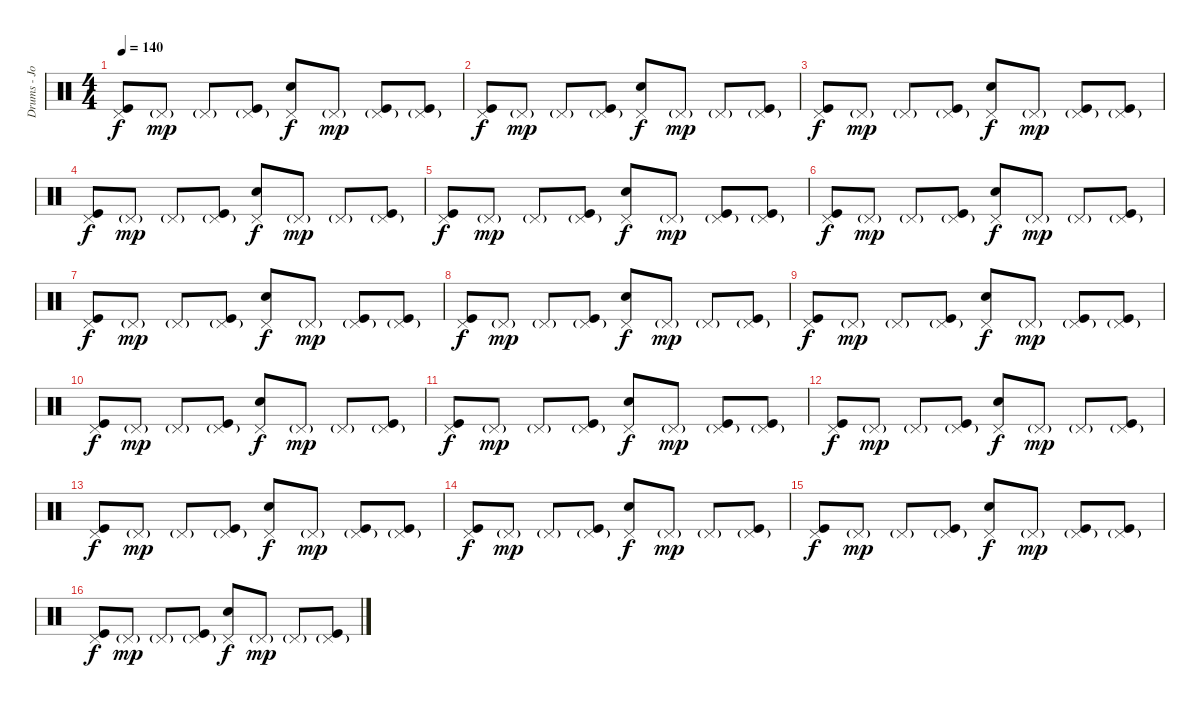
\track ("Drums - Josh Klinghoffer" "Drums - Jo") {instrument percussion}
\staff {score}
\articulation defaults
\ts (4 4)
\tempo 140
\clef neutral
\ks c
("Pedal Hi-Hat (hit)" "Kick (hit)").8{dy f} "Pedal Hi-Hat (hit)"{g}.8{dy mp} "Pedal Hi-Hat (hit)"{g}.8 ("Pedal Hi-Hat (hit)"{g} "Kick (hit)").8 ("Pedal Hi-Hat (hit)" "Electric Snare (hit)").8{dy f} "Pedal Hi-Hat (hit)"{g}.8{dy mp} ("Pedal Hi-Hat (hit)"{g} "Kick (hit)").8 ("Pedal Hi-Hat (hit)"{g} "Kick (hit)").8 |
("Pedal Hi-Hat (hit)" "Kick (hit)").8{dy f} "Pedal Hi-Hat (hit)"{g}.8{dy mp} "Pedal Hi-Hat (hit)"{g}.8 ("Pedal Hi-Hat (hit)"{g} "Kick (hit)").8 ("Pedal Hi-Hat (hit)" "Electric Snare (hit)").8{dy f} "Pedal Hi-Hat (hit)"{g}.8{dy mp} "Pedal Hi-Hat (hit)"{g}.8 ("Pedal Hi-Hat (hit)"{g} "Kick (hit)").8 |
("Pedal Hi-Hat (hit)" "Kick (hit)").8{dy f} "Pedal Hi-Hat (hit)"{g}.8{dy mp} "Pedal Hi-Hat (hit)"{g}.8 ("Pedal Hi-Hat (hit)"{g} "Kick (hit)").8 ("Pedal Hi-Hat (hit)" "Electric Snare (hit)").8{dy f} "Pedal Hi-Hat (hit)"{g}.8{dy mp} ("Pedal Hi-Hat (hit)"{g} "Kick (hit)").8 ("Pedal Hi-Hat (hit)"{g} "Kick (hit)").8 |
("Pedal Hi-Hat (hit)" "Kick (hit)").8{dy f} "Pedal Hi-Hat (hit)"{g}.8{dy mp} "Pedal Hi-Hat (hit)"{g}.8 ("Pedal Hi-Hat (hit)"{g} "Kick (hit)").8 ("Pedal Hi-Hat (hit)" "Electric Snare (hit)").8{dy f} "Pedal Hi-Hat (hit)"{g}.8{dy mp} "Pedal Hi-Hat (hit)"{g}.8 ("Pedal Hi-Hat (hit)"{g} "Kick (hit)").8 |
("Pedal Hi-Hat (hit)" "Kick (hit)").8{dy f} "Pedal Hi-Hat (hit)"{g}.8{dy mp} "Pedal Hi-Hat (hit)"{g}.8 ("Pedal Hi-Hat (hit)"{g} "Kick (hit)").8 ("Pedal Hi-Hat (hit)" "Electric Snare (hit)").8{dy f} "Pedal Hi-Hat (hit)"{g}.8{dy mp} ("Pedal Hi-Hat (hit)"{g} "Kick (hit)").8 ("Pedal Hi-Hat (hit)"{g} "Kick (hit)").8 |
("Pedal Hi-Hat (hit)" "Kick (hit)").8{dy f} "Pedal Hi-Hat (hit)"{g}.8{dy mp} "Pedal Hi-Hat (hit)"{g}.8 ("Pedal Hi-Hat (hit)"{g} "Kick (hit)").8 ("Pedal Hi-Hat (hit)" "Electric Snare (hit)").8{dy f} "Pedal Hi-Hat (hit)"{g}.8{dy mp} "Pedal Hi-Hat (hit)"{g}.8 ("Pedal Hi-Hat (hit)"{g} "Kick (hit)").8 |
("Pedal Hi-Hat (hit)" "Kick (hit)").8{dy f} "Pedal Hi-Hat (hit)"{g}.8{dy mp} "Pedal Hi-Hat (hit)"{g}.8 ("Pedal Hi-Hat (hit)"{g} "Kick (hit)").8 ("Pedal Hi-Hat (hit)" "Electric Snare (hit)").8{dy f} "Pedal Hi-Hat (hit)"{g}.8{dy mp} ("Pedal Hi-Hat (hit)"{g} "Kick (hit)").8 ("Pedal Hi-Hat (hit)"{g} "Kick (hit)").8 |
("Pedal Hi-Hat (hit)" "Kick (hit)").8{dy f} "Pedal Hi-Hat (hit)"{g}.8{dy mp} "Pedal Hi-Hat (hit)"{g}.8 ("Pedal Hi-Hat (hit)"{g} "Kick (hit)").8 ("Pedal Hi-Hat (hit)" "Electric Snare (hit)").8{dy f} "Pedal Hi-Hat (hit)"{g}.8{dy mp} "Pedal Hi-Hat (hit)"{g}.8 ("Pedal Hi-Hat (hit)"{g} "Kick (hit)").8 |
("Pedal Hi-Hat (hit)" "Kick (hit)").8{dy f} "Pedal Hi-Hat (hit)"{g}.8{dy mp} "Pedal Hi-Hat (hit)"{g}.8 ("Pedal Hi-Hat (hit)"{g} "Kick (hit)").8 ("Pedal Hi-Hat (hit)" "Electric Snare (hit)").8{dy f} "Pedal Hi-Hat (hit)"{g}.8{dy mp} ("Pedal Hi-Hat (hit)"{g} "Kick (hit)").8 ("Pedal Hi-Hat (hit)"{g} "Kick (hit)").8 |
("Pedal Hi-Hat (hit)" "Kick (hit)").8{dy f} "Pedal Hi-Hat (hit)"{g}.8{dy mp} "Pedal Hi-Hat (hit)"{g}.8 ("Pedal Hi-Hat (hit)"{g} "Kick (hit)").8 ("Pedal Hi-Hat (hit)" "Electric Snare (hit)").8{dy f} "Pedal Hi-Hat (hit)"{g}.8{dy mp} "Pedal Hi-Hat (hit)"{g}.8 ("Pedal Hi-Hat (hit)"{g} "Kick (hit)").8 |
("Pedal Hi-Hat (hit)" "Kick (hit)").8{dy f} "Pedal Hi-Hat (hit)"{g}.8{dy mp} "Pedal Hi-Hat (hit)"{g}.8 ("Pedal Hi-Hat (hit)"{g} "Kick (hit)").8 ("Pedal Hi-Hat (hit)" "Electric Snare (hit)").8{dy f} "Pedal Hi-Hat (hit)"{g}.8{dy mp} ("Pedal Hi-Hat (hit)"{g} "Kick (hit)").8 ("Pedal Hi-Hat (hit)"{g} "Kick (hit)").8 |
("Pedal Hi-Hat (hit)" "Kick (hit)").8{dy f} "Pedal Hi-Hat (hit)"{g}.8{dy mp} "Pedal Hi-Hat (hit)"{g}.8 ("Pedal Hi-Hat (hit)"{g} "Kick (hit)").8 ("Pedal Hi-Hat (hit)" "Electric Snare (hit)").8{dy f} "Pedal Hi-Hat (hit)"{g}.8{dy mp} "Pedal Hi-Hat (hit)"{g}.8 ("Pedal Hi-Hat (hit)"{g} "Kick (hit)").8 |
("Pedal Hi-Hat (hit)" "Kick (hit)").8{dy f} "Pedal Hi-Hat (hit)"{g}.8{dy mp} "Pedal Hi-Hat (hit)"{g}.8 ("Pedal Hi-Hat (hit)"{g} "Kick (hit)").8 ("Pedal Hi-Hat (hit)" "Electric Snare (hit)").8{dy f} "Pedal Hi-Hat (hit)"{g}.8{dy mp} ("Pedal Hi-Hat (hit)"{g} "Kick (hit)").8 ("Pedal Hi-Hat (hit)"{g} "Kick (hit)").8 |
("Pedal Hi-Hat (hit)" "Kick (hit)").8{dy f} "Pedal Hi-Hat (hit)"{g}.8{dy mp} "Pedal Hi-Hat (hit)"{g}.8 ("Pedal Hi-Hat (hit)"{g} "Kick (hit)").8 ("Pedal Hi-Hat (hit)" "Electric Snare (hit)").8{dy f} "Pedal Hi-Hat (hit)"{g}.8{dy mp} "Pedal Hi-Hat (hit)"{g}.8 ("Pedal Hi-Hat (hit)"{g} "Kick (hit)").8 |
("Pedal Hi-Hat (hit)" "Kick (hit)").8{dy f} "Pedal Hi-Hat (hit)"{g}.8{dy mp} "Pedal Hi-Hat (hit)"{g}.8 ("Pedal Hi-Hat (hit)"{g} "Kick (hit)").8 ("Pedal Hi-Hat (hit)" "Electric Snare (hit)").8{dy f} "Pedal Hi-Hat (hit)"{g}.8{dy mp} ("Pedal Hi-Hat (hit)"{g} "Kick (hit)").8 ("Pedal Hi-Hat (hit)"{g} "Kick (hit)").8 |
("Pedal Hi-Hat (hit)" "Kick (hit)").8{dy f} "Pedal Hi-Hat (hit)"{g}.8{dy mp} "Pedal Hi-Hat (hit)"{g}.8 ("Pedal Hi-Hat (hit)"{g} "Kick (hit)").8 ("Pedal Hi-Hat (hit)" "Electric Snare (hit)").8{dy f} "Pedal Hi-Hat (hit)"{g}.8{dy mp} "Pedal Hi-Hat (hit)"{g}.8 ("Pedal Hi-Hat (hit)"{g} "Kick (hit)").8
